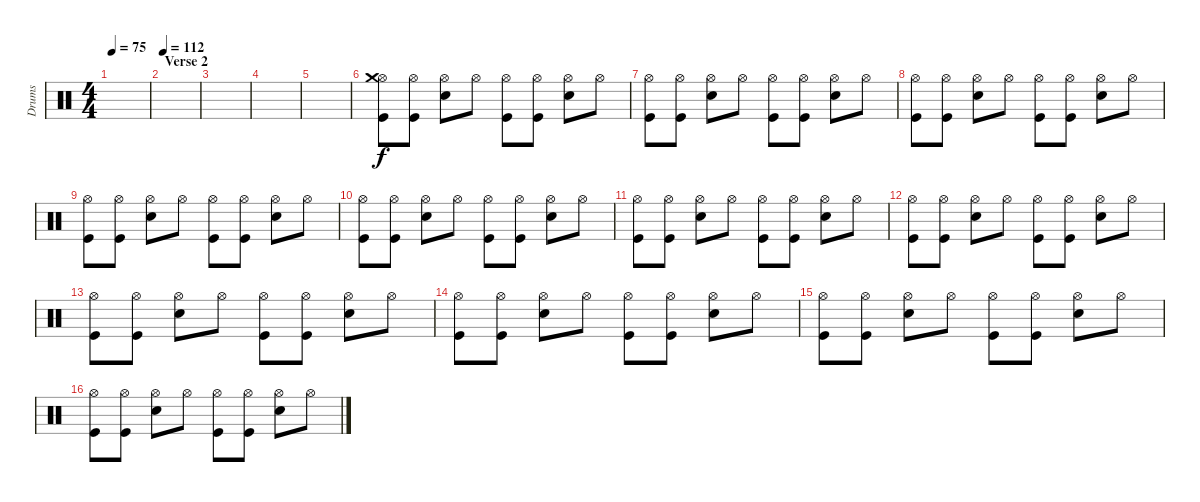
\track ("Drums" "Drums") {instrument percussion}
\staff {score}
\articulation defaults
\ts (4 4)
\tempo 75
\clef neutral
\ks c
|
\section ("" "Verse 2")
\tempo 112
|
|
|
|
("Hi-Hat (open)" "Crash medium (hit)" "Kick (hit)").8 ("Hi-Hat (open)" "Kick (hit)").8 ("Hi-Hat (open)" "Snare (hit) 2").8 "Hi-Hat (open)".8 ("Hi-Hat (open)" "Kick (hit)").8 ("Hi-Hat (open)" "Kick (hit)").8 ("Hi-Hat (open)" "Snare (hit) 2").8 "Hi-Hat (open)".8 |
("Hi-Hat (open)" "Kick (hit)").8 ("Hi-Hat (open)" "Kick (hit)").8 ("Hi-Hat (open)" "Snare (hit) 2").8 "Hi-Hat (open)".8 ("Hi-Hat (open)" "Kick (hit)").8 ("Hi-Hat (open)" "Kick (hit)").8 ("Hi-Hat (open)" "Snare (hit) 2").8 "Hi-Hat (open)".8 |
("Hi-Hat (open)" "Kick (hit)").8 ("Hi-Hat (open)" "Kick (hit)").8 ("Hi-Hat (open)" "Snare (hit) 2").8 "Hi-Hat (open)".8 ("Hi-Hat (open)" "Kick (hit)").8 ("Hi-Hat (open)" "Kick (hit)").8 ("Hi-Hat (open)" "Snare (hit) 2").8 "Hi-Hat (open)".8 |
("Hi-Hat (open)" "Kick (hit)").8 ("Hi-Hat (open)" "Kick (hit)").8 ("Hi-Hat (open)" "Snare (hit) 2").8 "Hi-Hat (open)".8 ("Hi-Hat (open)" "Kick (hit)").8 ("Hi-Hat (open)" "Kick (hit)").8 ("Hi-Hat (open)" "Snare (hit) 2").8 "Hi-Hat (open)".8 |
("Hi-Hat (open)" "Kick (hit)").8 ("Hi-Hat (open)" "Kick (hit)").8 ("Hi-Hat (open)" "Snare (hit) 2").8 "Hi-Hat (open)".8 ("Hi-Hat (open)" "Kick (hit)").8 ("Hi-Hat (open)" "Kick (hit)").8 ("Hi-Hat (open)" "Snare (hit) 2").8 "Hi-Hat (open)".8 |
("Hi-Hat (open)" "Kick (hit)").8 ("Hi-Hat (open)" "Kick (hit)").8 ("Hi-Hat (open)" "Snare (hit) 2").8 "Hi-Hat (open)".8 ("Hi-Hat (open)" "Kick (hit)").8 ("Hi-Hat (open)" "Kick (hit)").8 ("Hi-Hat (open)" "Snare (hit) 2").8 "Hi-Hat (open)".8 |
("Hi-Hat (open)" "Kick (hit)").8 ("Hi-Hat (open)" "Kick (hit)").8 ("Hi-Hat (open)" "Snare (hit) 2").8 "Hi-Hat (open)".8 ("Hi-Hat (open)" "Kick (hit)").8 ("Hi-Hat (open)" "Kick (hit)").8 ("Hi-Hat (open)" "Snare (hit) 2").8 "Hi-Hat (open)".8 |
("Hi-Hat (open)" "Kick (hit)").8 ("Hi-Hat (open)" "Kick (hit)").8 ("Hi-Hat (open)" "Snare (hit) 2").8 "Hi-Hat (open)".8 ("Hi-Hat (open)" "Kick (hit)").8 ("Hi-Hat (open)" "Kick (hit)").8 ("Hi-Hat (open)" "Snare (hit) 2").8 "Hi-Hat (open)".8 |
("Hi-Hat (open)" "Kick (hit)").8 ("Hi-Hat (open)" "Kick (hit)").8 ("Hi-Hat (open)" "Snare (hit) 2").8 "Hi-Hat (open)".8 ("Hi-Hat (open)" "Kick (hit)").8 ("Hi-Hat (open)" "Kick (hit)").8 ("Hi-Hat (open)" "Snare (hit) 2").8 "Hi-Hat (open)".8 |
("Hi-Hat (open)" "Kick (hit)").8 ("Hi-Hat (open)" "Kick (hit)").8 ("Hi-Hat (open)" "Snare (hit) 2").8 "Hi-Hat (open)".8 ("Hi-Hat (open)" "Kick (hit)").8 ("Hi-Hat (open)" "Kick (hit)").8 ("Hi-Hat (open)" "Snare (hit) 2").8 "Hi-Hat (open)".8 |
("Hi-Hat (open)" "Kick (hit)").8 ("Hi-Hat (open)" "Kick (hit)").8 ("Hi-Hat (open)" "Snare (hit) 2").8 "Hi-Hat (open)".8 ("Hi-Hat (open)" "Kick (hit)").8 ("Hi-Hat (open)" "Kick (hit)").8 ("Hi-Hat (open)" "Snare (hit) 2").8 "Hi-Hat (open)".8
